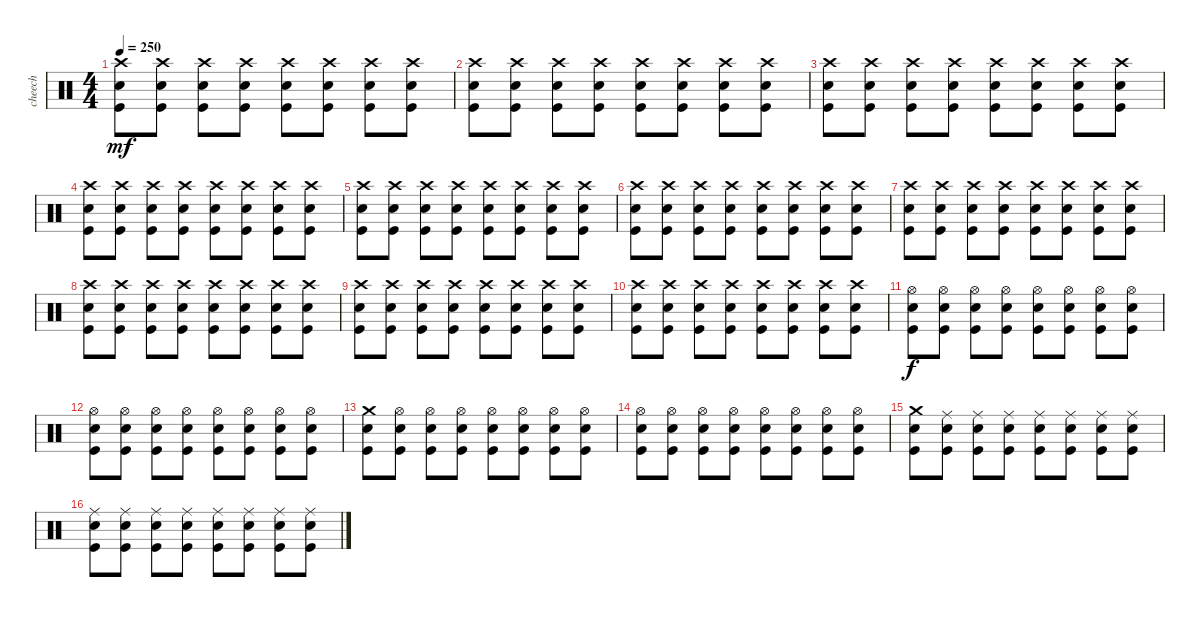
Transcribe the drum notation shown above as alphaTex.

\track ("cheech" "cheech") {instrument percussion}
\staff {score}
\articulation defaults
\ts (4 4)
\tempo 250
\clef neutral
\ks c
("Crash high (hit)" "Electric Snare (hit)" "Kick (hit)").8{dy mf} ("Crash high (hit)" "Electric Snare (hit)" "Kick (hit)").8 ("Crash high (hit)" "Electric Snare (hit)" "Kick (hit)").8 ("Crash high (hit)" "Electric Snare (hit)" "Kick (hit)").8 ("Crash high (hit)" "Electric Snare (hit)" "Kick (hit)").8 ("Crash high (hit)" "Electric Snare (hit)" "Kick (hit)").8 ("Crash high (hit)" "Electric Snare (hit)" "Kick (hit)").8 ("Crash high (hit)" "Electric Snare (hit)" "Kick (hit)").8 |
("Crash high (hit)" "Electric Snare (hit)" "Kick (hit)").8 ("Crash high (hit)" "Electric Snare (hit)" "Kick (hit)").8 ("Crash high (hit)" "Electric Snare (hit)" "Kick (hit)").8 ("Crash high (hit)" "Electric Snare (hit)" "Kick (hit)").8 ("Crash high (hit)" "Electric Snare (hit)" "Kick (hit)").8 ("Crash high (hit)" "Electric Snare (hit)" "Kick (hit)").8 ("Crash high (hit)" "Electric Snare (hit)" "Kick (hit)").8 ("Crash high (hit)" "Electric Snare (hit)" "Kick (hit)").8 |
("Crash high (hit)" "Electric Snare (hit)" "Kick (hit)").8 ("Crash high (hit)" "Electric Snare (hit)" "Kick (hit)").8 ("Crash high (hit)" "Electric Snare (hit)" "Kick (hit)").8 ("Crash high (hit)" "Electric Snare (hit)" "Kick (hit)").8 ("Crash high (hit)" "Electric Snare (hit)" "Kick (hit)").8 ("Crash high (hit)" "Electric Snare (hit)" "Kick (hit)").8 ("Crash high (hit)" "Electric Snare (hit)" "Kick (hit)").8 ("Crash high (hit)" "Electric Snare (hit)" "Kick (hit)").8 |
("Crash high (hit)" "Electric Snare (hit)" "Kick (hit)").8 ("Crash high (hit)" "Electric Snare (hit)" "Kick (hit)").8 ("Crash high (hit)" "Electric Snare (hit)" "Kick (hit)").8 ("Crash high (hit)" "Electric Snare (hit)" "Kick (hit)").8 ("Crash high (hit)" "Electric Snare (hit)" "Kick (hit)").8 ("Crash high (hit)" "Electric Snare (hit)" "Kick (hit)").8 ("Crash high (hit)" "Electric Snare (hit)" "Kick (hit)").8 ("Crash high (hit)" "Electric Snare (hit)" "Kick (hit)").8 |
("Crash high (hit)" "Electric Snare (hit)" "Kick (hit)").8 ("Crash high (hit)" "Electric Snare (hit)" "Kick (hit)").8 ("Crash high (hit)" "Electric Snare (hit)" "Kick (hit)").8 ("Crash high (hit)" "Electric Snare (hit)" "Kick (hit)").8 ("Crash high (hit)" "Electric Snare (hit)" "Kick (hit)").8 ("Crash high (hit)" "Electric Snare (hit)" "Kick (hit)").8 ("Crash high (hit)" "Electric Snare (hit)" "Kick (hit)").8 ("Crash high (hit)" "Electric Snare (hit)" "Kick (hit)").8 |
("Crash high (hit)" "Electric Snare (hit)" "Kick (hit)").8 ("Crash high (hit)" "Electric Snare (hit)" "Kick (hit)").8 ("Crash high (hit)" "Electric Snare (hit)" "Kick (hit)").8 ("Crash high (hit)" "Electric Snare (hit)" "Kick (hit)").8 ("Crash high (hit)" "Electric Snare (hit)" "Kick (hit)").8 ("Crash high (hit)" "Electric Snare (hit)" "Kick (hit)").8 ("Crash high (hit)" "Electric Snare (hit)" "Kick (hit)").8 ("Crash high (hit)" "Electric Snare (hit)" "Kick (hit)").8 |
("Crash high (hit)" "Electric Snare (hit)" "Kick (hit)").8 ("Crash high (hit)" "Electric Snare (hit)" "Kick (hit)").8 ("Crash high (hit)" "Electric Snare (hit)" "Kick (hit)").8 ("Crash high (hit)" "Electric Snare (hit)" "Kick (hit)").8 ("Crash high (hit)" "Electric Snare (hit)" "Kick (hit)").8 ("Crash high (hit)" "Electric Snare (hit)" "Kick (hit)").8 ("Crash high (hit)" "Electric Snare (hit)" "Kick (hit)").8 ("Crash high (hit)" "Electric Snare (hit)" "Kick (hit)").8 |
("Crash high (hit)" "Electric Snare (hit)" "Kick (hit)").8 ("Crash high (hit)" "Electric Snare (hit)" "Kick (hit)").8 ("Crash high (hit)" "Electric Snare (hit)" "Kick (hit)").8 ("Crash high (hit)" "Electric Snare (hit)" "Kick (hit)").8 ("Crash high (hit)" "Electric Snare (hit)" "Kick (hit)").8 ("Crash high (hit)" "Electric Snare (hit)" "Kick (hit)").8 ("Crash high (hit)" "Electric Snare (hit)" "Kick (hit)").8 ("Crash high (hit)" "Electric Snare (hit)" "Kick (hit)").8 |
("Crash high (hit)" "Electric Snare (hit)" "Kick (hit)").8 ("Crash high (hit)" "Electric Snare (hit)" "Kick (hit)").8 ("Crash high (hit)" "Electric Snare (hit)" "Kick (hit)").8 ("Crash high (hit)" "Electric Snare (hit)" "Kick (hit)").8 ("Crash high (hit)" "Electric Snare (hit)" "Kick (hit)").8 ("Crash high (hit)" "Electric Snare (hit)" "Kick (hit)").8 ("Crash high (hit)" "Electric Snare (hit)" "Kick (hit)").8 ("Crash high (hit)" "Electric Snare (hit)" "Kick (hit)").8 |
("Crash high (hit)" "Electric Snare (hit)" "Kick (hit)").8 ("Crash high (hit)" "Electric Snare (hit)" "Kick (hit)").8 ("Crash high (hit)" "Electric Snare (hit)" "Kick (hit)").8 ("Crash high (hit)" "Electric Snare (hit)" "Kick (hit)").8 ("Crash high (hit)" "Electric Snare (hit)" "Kick (hit)").8 ("Crash high (hit)" "Electric Snare (hit)" "Kick (hit)").8 ("Crash high (hit)" "Electric Snare (hit)" "Kick (hit)").8 ("Crash high (hit)" "Electric Snare (hit)" "Kick (hit)").8 |
("Hi-Hat (open)" "Electric Snare (hit)" "Kick (hit)").8{dy f} ("Hi-Hat (open)" "Electric Snare (hit)" "Kick (hit)").8 ("Hi-Hat (open)" "Electric Snare (hit)" "Kick (hit)").8 ("Hi-Hat (open)" "Electric Snare (hit)" "Kick (hit)").8 ("Hi-Hat (open)" "Electric Snare (hit)" "Kick (hit)").8 ("Hi-Hat (open)" "Electric Snare (hit)" "Kick (hit)").8 ("Hi-Hat (open)" "Electric Snare (hit)" "Kick (hit)").8 ("Hi-Hat (open)" "Electric Snare (hit)" "Kick (hit)").8 |
("Hi-Hat (open)" "Electric Snare (hit)" "Kick (hit)").8 ("Hi-Hat (open)" "Electric Snare (hit)" "Kick (hit)").8 ("Hi-Hat (open)" "Electric Snare (hit)" "Kick (hit)").8 ("Hi-Hat (open)" "Electric Snare (hit)" "Kick (hit)").8 ("Hi-Hat (open)" "Electric Snare (hit)" "Kick (hit)").8 ("Hi-Hat (open)" "Electric Snare (hit)" "Kick (hit)").8 ("Hi-Hat (open)" "Electric Snare (hit)" "Kick (hit)").8 ("Hi-Hat (open)" "Electric Snare (hit)" "Kick (hit)").8 |
("Crash medium (hit)" "Electric Snare (hit)" "Kick (hit)").8 ("Hi-Hat (open)" "Electric Snare (hit)" "Kick (hit)").8 ("Hi-Hat (open)" "Electric Snare (hit)" "Kick (hit)").8 ("Hi-Hat (open)" "Electric Snare (hit)" "Kick (hit)").8 ("Hi-Hat (open)" "Electric Snare (hit)" "Kick (hit)").8 ("Hi-Hat (open)" "Electric Snare (hit)" "Kick (hit)").8 ("Hi-Hat (open)" "Electric Snare (hit)" "Kick (hit)").8 ("Hi-Hat (open)" "Electric Snare (hit)" "Kick (hit)").8 |
("Hi-Hat (open)" "Electric Snare (hit)" "Kick (hit)").8 ("Hi-Hat (open)" "Electric Snare (hit)" "Kick (hit)").8 ("Hi-Hat (open)" "Electric Snare (hit)" "Kick (hit)").8 ("Hi-Hat (open)" "Electric Snare (hit)" "Kick (hit)").8 ("Hi-Hat (open)" "Electric Snare (hit)" "Kick (hit)").8 ("Hi-Hat (open)" "Electric Snare (hit)" "Kick (hit)").8 ("Hi-Hat (open)" "Electric Snare (hit)" "Kick (hit)").8 ("Hi-Hat (open)" "Electric Snare (hit)" "Kick (hit)").8 |
("Crash medium (hit)" "Electric Snare (hit)" "Kick (hit)").8 ("Ride (middle)" "Electric Snare (hit)" "Kick (hit)").8 ("Ride (middle)" "Electric Snare (hit)" "Kick (hit)").8 ("Ride (middle)" "Electric Snare (hit)" "Kick (hit)").8 ("Ride (middle)" "Electric Snare (hit)" "Kick (hit)").8 ("Ride (middle)" "Electric Snare (hit)" "Kick (hit)").8 ("Ride (middle)" "Electric Snare (hit)" "Kick (hit)").8 ("Ride (middle)" "Electric Snare (hit)" "Kick (hit)").8 |
("Ride (middle)" "Electric Snare (hit)" "Kick (hit)").8 ("Ride (middle)" "Electric Snare (hit)" "Kick (hit)").8 ("Ride (middle)" "Electric Snare (hit)" "Kick (hit)").8 ("Ride (middle)" "Electric Snare (hit)" "Kick (hit)").8 ("Ride (middle)" "Electric Snare (hit)" "Kick (hit)").8 ("Ride (middle)" "Electric Snare (hit)" "Kick (hit)").8 ("Ride (middle)" "Electric Snare (hit)" "Kick (hit)").8 ("Ride (middle)" "Electric Snare (hit)" "Kick (hit)").8
